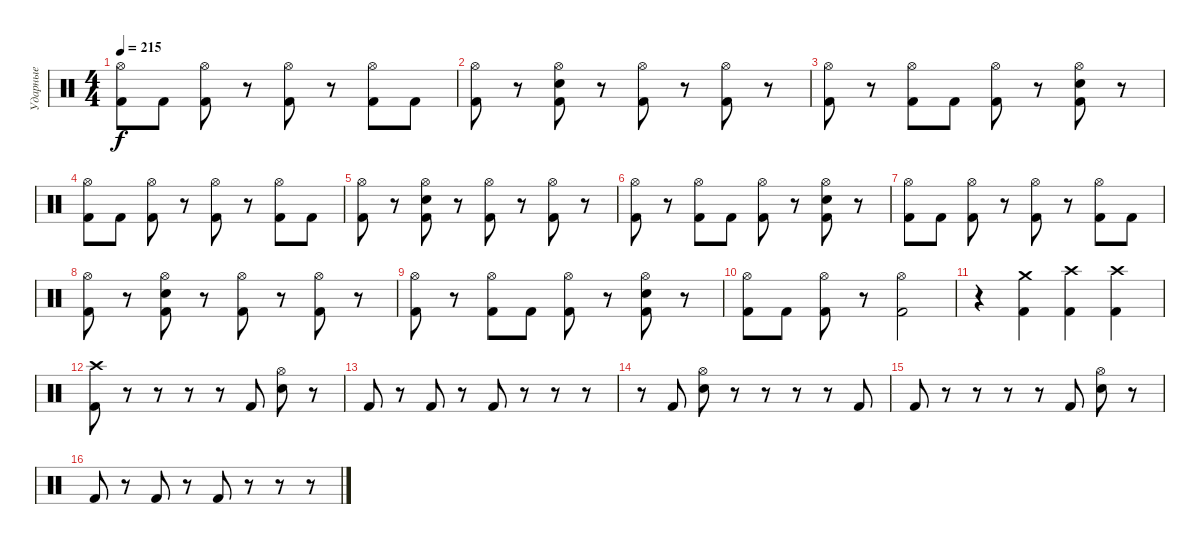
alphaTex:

\track ("Ударные" "Ударные") {instrument percussion}
\staff {score}
\articulation defaults
\ts (4 4)
\tempo 215
\clef neutral
\ks c
("Hi-Hat (open)" "Kick (hit) 2").8{dy f} "Kick (hit) 2".8 ("Hi-Hat (open)" "Kick (hit) 2").8 r.8 ("Hi-Hat (open)" "Kick (hit) 2").8 r.8 ("Hi-Hat (open)" "Kick (hit) 2").8 "Kick (hit) 2".8 |
("Hi-Hat (open)" "Kick (hit) 2").8 r.8 ("Hi-Hat (open)" "Snare (hit) 2" "Kick (hit) 2").8 r.8 ("Hi-Hat (open)" "Kick (hit) 2").8 r.8 ("Hi-Hat (open)" "Kick (hit) 2").8 r.8 |
("Hi-Hat (open)" "Kick (hit) 2").8 r.8 ("Hi-Hat (open)" "Kick (hit) 2").8 "Kick (hit) 2".8 ("Hi-Hat (open)" "Kick (hit) 2").8 r.8 ("Hi-Hat (open)" "Snare (hit) 2" "Kick (hit) 2").8 r.8 |
("Hi-Hat (open)" "Kick (hit) 2").8 "Kick (hit) 2".8 ("Hi-Hat (open)" "Kick (hit) 2").8 r.8 ("Hi-Hat (open)" "Kick (hit) 2").8 r.8 ("Hi-Hat (open)" "Kick (hit) 2").8 "Kick (hit) 2".8 |
("Hi-Hat (open)" "Kick (hit) 2").8 r.8 ("Hi-Hat (open)" "Snare (hit) 2" "Kick (hit) 2").8 r.8 ("Hi-Hat (open)" "Kick (hit) 2").8 r.8 ("Hi-Hat (open)" "Kick (hit) 2").8 r.8 |
("Hi-Hat (open)" "Kick (hit) 2").8 r.8 ("Hi-Hat (open)" "Kick (hit) 2").8 "Kick (hit) 2".8 ("Hi-Hat (open)" "Kick (hit) 2").8 r.8 ("Hi-Hat (open)" "Snare (hit) 2" "Kick (hit) 2").8 r.8 |
("Hi-Hat (open)" "Kick (hit) 2").8 "Kick (hit) 2".8 ("Hi-Hat (open)" "Kick (hit) 2").8 r.8 ("Hi-Hat (open)" "Kick (hit) 2").8 r.8 ("Hi-Hat (open)" "Kick (hit) 2").8 "Kick (hit) 2".8 |
("Hi-Hat (open)" "Kick (hit) 2").8 r.8 ("Hi-Hat (open)" "Snare (hit) 2" "Kick (hit) 2").8 r.8 ("Hi-Hat (open)" "Kick (hit) 2").8 r.8 ("Hi-Hat (open)" "Kick (hit) 2").8 r.8 |
("Hi-Hat (open)" "Kick (hit) 2").8 r.8 ("Hi-Hat (open)" "Kick (hit) 2").8 "Kick (hit) 2".8 ("Hi-Hat (open)" "Kick (hit) 2").8 r.8 ("Hi-Hat (open)" "Snare (hit) 2" "Kick (hit) 2").8 r.8 |
("Hi-Hat (open)" "Kick (hit) 2").8 "Kick (hit) 2".8 ("Hi-Hat (open)" "Kick (hit) 2").8 r.8 ("Hi-Hat (open)" "Kick (hit) 2").2 |
r.4 ("Crash medium (hit)" "Kick (hit) 2").4 ("Crash high (hit)" "Kick (hit) 2").4 ("Crash high (hit)" "Kick (hit) 2").4 |
("Crash high (hit)" "Kick (hit) 2").8 r.8 r.8 r.8 r.8 "Kick (hit) 2".8 ("Hi-Hat (open)" "Snare (hit) 2").8 r.8 |
"Kick (hit) 2".8 r.8 "Kick (hit) 2".8 r.8 "Kick (hit) 2".8 r.8 r.8 r.8 |
r.8 "Kick (hit) 2".8 ("Hi-Hat (open)" "Snare (hit) 2").8 r.8 r.8 r.8 r.8 "Kick (hit) 2".8 |
"Kick (hit) 2".8 r.8 r.8 r.8 r.8 "Kick (hit) 2".8 ("Hi-Hat (open)" "Snare (hit) 2").8 r.8 |
"Kick (hit) 2".8 r.8 "Kick (hit) 2".8 r.8 "Kick (hit) 2".8 r.8 r.8 r.8
